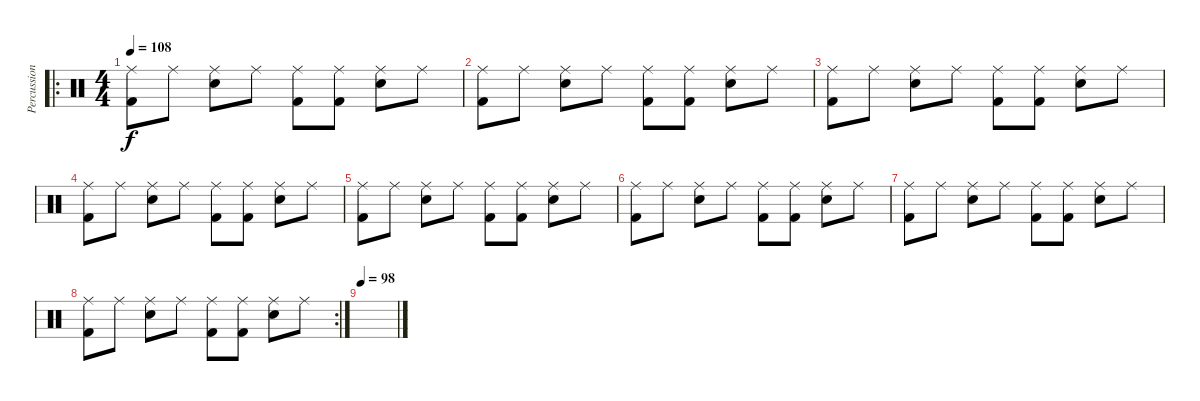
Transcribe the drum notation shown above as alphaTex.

\track ("Percussion" "Percussion") {instrument percussion}
\staff {score}
\articulation defaults
\ro
\ts (4 4)
\tempo 108
\clef neutral
\ks c
("Ride (middle)" "Kick (hit) 2").8{dy f} "Ride (middle)".8 ("Ride (middle)" "Electric Snare (hit)").8 "Ride (middle)".8 ("Ride (middle)" "Kick (hit) 2").8 ("Ride (middle)" "Kick (hit) 2").8 ("Ride (middle)" "Electric Snare (hit)").8 "Ride (middle)".8 |
("Ride (middle)" "Kick (hit) 2").8 "Ride (middle)".8 ("Ride (middle)" "Electric Snare (hit)").8 "Ride (middle)".8 ("Ride (middle)" "Kick (hit) 2").8 ("Ride (middle)" "Kick (hit) 2").8 ("Ride (middle)" "Electric Snare (hit)").8 "Ride (middle)".8 |
("Ride (middle)" "Kick (hit) 2").8 "Ride (middle)".8 ("Ride (middle)" "Electric Snare (hit)").8 "Ride (middle)".8 ("Ride (middle)" "Kick (hit) 2").8 ("Ride (middle)" "Kick (hit) 2").8 ("Ride (middle)" "Electric Snare (hit)").8 "Ride (middle)".8 |
("Ride (middle)" "Kick (hit) 2").8 "Ride (middle)".8 ("Ride (middle)" "Electric Snare (hit)").8 "Ride (middle)".8 ("Ride (middle)" "Kick (hit) 2").8 ("Ride (middle)" "Kick (hit) 2").8 ("Ride (middle)" "Electric Snare (hit)").8 "Ride (middle)".8 |
("Ride (middle)" "Kick (hit) 2").8 "Ride (middle)".8 ("Ride (middle)" "Electric Snare (hit)").8 "Ride (middle)".8 ("Ride (middle)" "Kick (hit) 2").8 ("Ride (middle)" "Kick (hit) 2").8 ("Ride (middle)" "Electric Snare (hit)").8 "Ride (middle)".8 |
("Ride (middle)" "Kick (hit) 2").8 "Ride (middle)".8 ("Ride (middle)" "Electric Snare (hit)").8 "Ride (middle)".8 ("Ride (middle)" "Kick (hit) 2").8 ("Ride (middle)" "Kick (hit) 2").8 ("Ride (middle)" "Electric Snare (hit)").8 "Ride (middle)".8 |
("Ride (middle)" "Kick (hit) 2").8 "Ride (middle)".8 ("Ride (middle)" "Electric Snare (hit)").8 "Ride (middle)".8 ("Ride (middle)" "Kick (hit) 2").8 ("Ride (middle)" "Kick (hit) 2").8 ("Ride (middle)" "Electric Snare (hit)").8 "Ride (middle)".8 |
\rc 2
("Ride (middle)" "Kick (hit) 2").8 "Ride (middle)".8 ("Ride (middle)" "Electric Snare (hit)").8 "Ride (middle)".8 ("Ride (middle)" "Kick (hit) 2").8 ("Ride (middle)" "Kick (hit) 2").8 ("Ride (middle)" "Electric Snare (hit)").8 "Ride (middle)".8 |
\tempo 98
